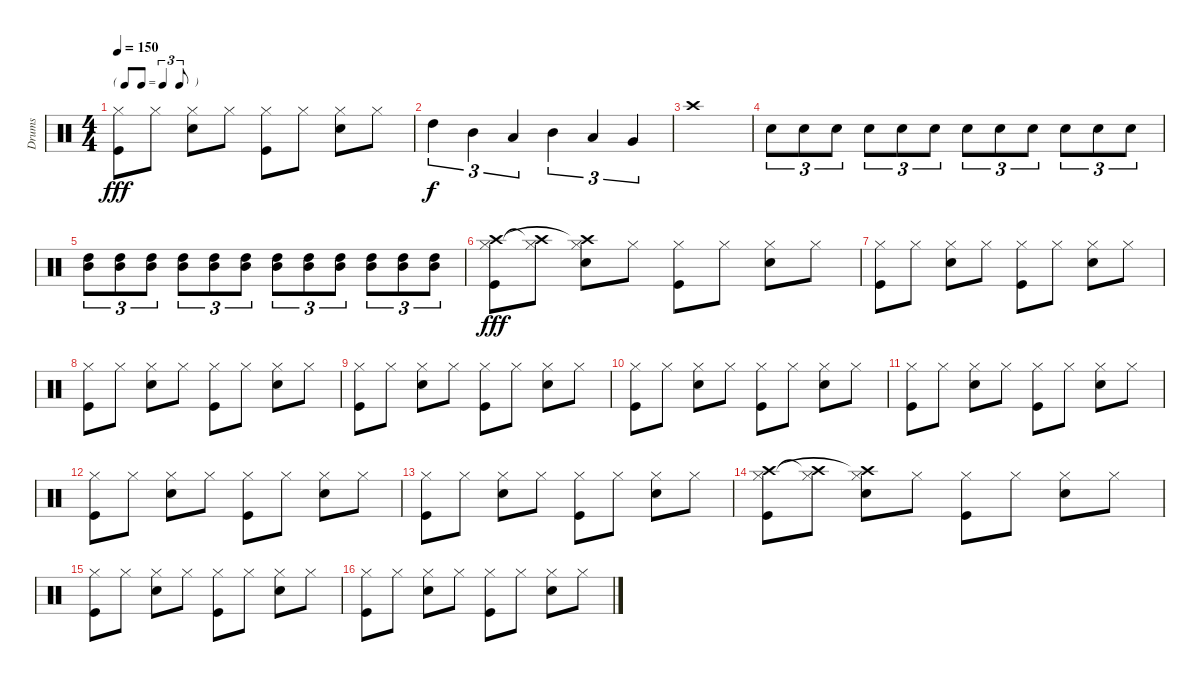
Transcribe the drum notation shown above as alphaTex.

\track ("Drums" "Drums") {instrument percussion}
\staff {score}
\articulation defaults
\ts (4 4)
\tf triplet8th
\tempo 150
\clef neutral
\ks c
("Kick (hit)" "Hi-Hat (closed)").8{dy fff} "Hi-Hat (closed)".8 ("Snare (hit) 2" "Hi-Hat (closed)").8 "Hi-Hat (closed)".8 ("Kick (hit)" "Hi-Hat (closed)").8 "Hi-Hat (closed)".8 ("Snare (hit) 2" "Hi-Hat (closed)").8 "Hi-Hat (closed)".8 |
"High Tom (hit)".4{tu (3 2) dy f} "Mid Tom (hit)".4{tu (3 2)} "Low Tom (hit)".4{tu (3 2)} "Mid Tom (hit)".4{tu (3 2)} "Low Tom (hit)".4{tu (3 2)} "Very Low Tom (hit)".4{tu (3 2)} |
"Crash high (hit)".1 |
"Snare (hit) 2".8{tu (3 2)} "Snare (hit) 2".8{tu (3 2)} "Snare (hit) 2".8{tu (3 2)} "Snare (hit) 2".8{tu (3 2)} "Snare (hit) 2".8{tu (3 2)} "Snare (hit) 2".8{tu (3 2)} "Snare (hit) 2".8{tu (3 2)} "Snare (hit) 2".8{tu (3 2)} "Snare (hit) 2".8{tu (3 2)} "Snare (hit) 2".8{tu (3 2)} "Snare (hit) 2".8{tu (3 2)} "Snare (hit) 2".8{tu (3 2)} |
("Mid Tom (hit)" "High Tom (hit)").8{tu (3 2)} ("Mid Tom (hit)" "High Tom (hit)").8{tu (3 2)} ("Mid Tom (hit)" "High Tom (hit)").8{tu (3 2)} ("Mid Tom (hit)" "High Tom (hit)").8{tu (3 2)} ("Mid Tom (hit)" "High Tom (hit)").8{tu (3 2)} ("Mid Tom (hit)" "High Tom (hit)").8{tu (3 2)} ("Mid Tom (hit)" "High Tom (hit)").8{tu (3 2)} ("Mid Tom (hit)" "High Tom (hit)").8{tu (3 2)} ("Mid Tom (hit)" "High Tom (hit)").8{tu (3 2)} ("Mid Tom (hit)" "High Tom (hit)").8{tu (3 2)} ("Mid Tom (hit)" "High Tom (hit)").8{tu (3 2)} ("Mid Tom (hit)" "High Tom (hit)").8{tu (3 2)} |
("Kick (hit)" "Hi-Hat (closed)" "Crash high (hit)").8{dy fff} ("Hi-Hat (closed)" "Crash high (hit)"{t}).8 ("Snare (hit) 2" "Hi-Hat (closed)" "Crash high (hit)"{t}).8 "Hi-Hat (closed)".8 ("Kick (hit)" "Hi-Hat (closed)").8 "Hi-Hat (closed)".8 ("Snare (hit) 2" "Hi-Hat (closed)").8 "Hi-Hat (closed)".8 |
("Kick (hit)" "Hi-Hat (closed)").8 "Hi-Hat (closed)".8 ("Snare (hit) 2" "Hi-Hat (closed)").8 "Hi-Hat (closed)".8 ("Kick (hit)" "Hi-Hat (closed)").8 "Hi-Hat (closed)".8 ("Snare (hit) 2" "Hi-Hat (closed)").8 "Hi-Hat (closed)".8 |
("Kick (hit)" "Hi-Hat (closed)").8 "Hi-Hat (closed)".8 ("Snare (hit) 2" "Hi-Hat (closed)").8 "Hi-Hat (closed)".8 ("Kick (hit)" "Hi-Hat (closed)").8 "Hi-Hat (closed)".8 ("Snare (hit) 2" "Hi-Hat (closed)").8 "Hi-Hat (closed)".8 |
("Kick (hit)" "Hi-Hat (closed)").8 "Hi-Hat (closed)".8 ("Snare (hit) 2" "Hi-Hat (closed)").8 "Hi-Hat (closed)".8 ("Kick (hit)" "Hi-Hat (closed)").8 "Hi-Hat (closed)".8 ("Snare (hit) 2" "Hi-Hat (closed)").8 "Hi-Hat (closed)".8 |
("Kick (hit)" "Hi-Hat (closed)").8 "Hi-Hat (closed)".8 ("Snare (hit) 2" "Hi-Hat (closed)").8 "Hi-Hat (closed)".8 ("Kick (hit)" "Hi-Hat (closed)").8 "Hi-Hat (closed)".8 ("Snare (hit) 2" "Hi-Hat (closed)").8 "Hi-Hat (closed)".8 |
("Kick (hit)" "Hi-Hat (closed)").8 "Hi-Hat (closed)".8 ("Snare (hit) 2" "Hi-Hat (closed)").8 "Hi-Hat (closed)".8 ("Kick (hit)" "Hi-Hat (closed)").8 "Hi-Hat (closed)".8 ("Snare (hit) 2" "Hi-Hat (closed)").8 "Hi-Hat (closed)".8 |
("Kick (hit)" "Hi-Hat (closed)").8 "Hi-Hat (closed)".8 ("Snare (hit) 2" "Hi-Hat (closed)").8 "Hi-Hat (closed)".8 ("Kick (hit)" "Hi-Hat (closed)").8 "Hi-Hat (closed)".8 ("Snare (hit) 2" "Hi-Hat (closed)").8 "Hi-Hat (closed)".8 |
("Kick (hit)" "Hi-Hat (closed)").8 "Hi-Hat (closed)".8 ("Snare (hit) 2" "Hi-Hat (closed)").8 "Hi-Hat (closed)".8 ("Kick (hit)" "Hi-Hat (closed)").8 "Hi-Hat (closed)".8 ("Snare (hit) 2" "Hi-Hat (closed)").8 "Hi-Hat (closed)".8 |
("Kick (hit)" "Hi-Hat (closed)" "Crash high (hit)").8 ("Hi-Hat (closed)" "Crash high (hit)"{t}).8 ("Snare (hit) 2" "Hi-Hat (closed)" "Crash high (hit)"{t}).8 "Hi-Hat (closed)".8 ("Kick (hit)" "Hi-Hat (closed)").8 "Hi-Hat (closed)".8 ("Snare (hit) 2" "Hi-Hat (closed)").8 "Hi-Hat (closed)".8 |
("Kick (hit)" "Hi-Hat (closed)").8 "Hi-Hat (closed)".8 ("Snare (hit) 2" "Hi-Hat (closed)").8 "Hi-Hat (closed)".8 ("Kick (hit)" "Hi-Hat (closed)").8 "Hi-Hat (closed)".8 ("Snare (hit) 2" "Hi-Hat (closed)").8 "Hi-Hat (closed)".8 |
("Kick (hit)" "Hi-Hat (closed)").8 "Hi-Hat (closed)".8 ("Snare (hit) 2" "Hi-Hat (closed)").8 "Hi-Hat (closed)".8 ("Kick (hit)" "Hi-Hat (closed)").8 "Hi-Hat (closed)".8 ("Snare (hit) 2" "Hi-Hat (closed)").8 "Hi-Hat (closed)".8
